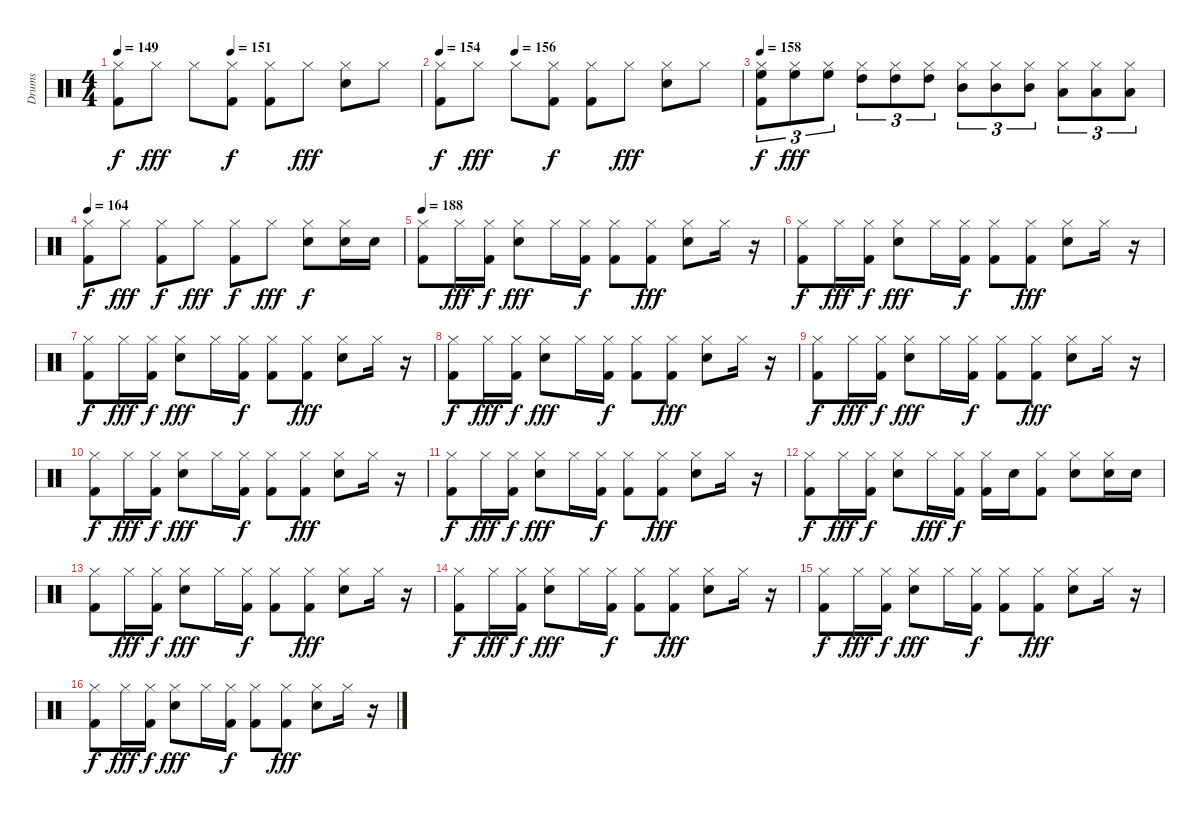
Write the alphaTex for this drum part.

\track ("Drums" "Drums") {instrument percussion}
\staff {score}
\articulation defaults
\ts (4 4)
\tempo 149
\tempo (151 0.375)
\clef neutral
\ks c
("Hi-Hat (closed)" "Kick (hit) 2").8{dy f} "Hi-Hat (closed)".8{dy fff} "Hi-Hat (closed)".8 ("Hi-Hat (closed)" "Kick (hit) 2").8{dy f} ("Hi-Hat (closed)" "Kick (hit) 2").8 "Hi-Hat (closed)".8{dy fff} ("Hi-Hat (closed)" "Snare (hit) 2").8 "Hi-Hat (closed)".8 |
\tempo 154
\tempo (156 0.25)
("Hi-Hat (closed)" "Kick (hit) 2").8{dy f} "Hi-Hat (closed)".8{dy fff} "Hi-Hat (closed)".8 ("Hi-Hat (closed)" "Kick (hit) 2").8{dy f} ("Hi-Hat (closed)" "Kick (hit) 2").8 "Hi-Hat (closed)".8{dy fff} ("Hi-Hat (closed)" "Snare (hit) 2").8 "Hi-Hat (closed)".8 |
\tempo 158
("Hi-Hat (closed)" "High Floor Tom (hit)" "Kick (hit) 2").8{tu (3 2) dy f} ("Hi-Hat (closed)" "High Floor Tom (hit)").8{tu (3 2) dy fff} ("Hi-Hat (closed)" "High Floor Tom (hit)").8{tu (3 2)} ("Hi-Hat (closed)" "High Tom (hit)").8{tu (3 2)} ("Hi-Hat (closed)" "High Tom (hit)").8{tu (3 2)} ("Hi-Hat (closed)" "High Tom (hit)").8{tu (3 2)} ("Hi-Hat (closed)" "Mid Tom (hit)").8{tu (3 2)} ("Hi-Hat (closed)" "Mid Tom (hit)").8{tu (3 2)} ("Hi-Hat (closed)" "Mid Tom (hit)").8{tu (3 2)} ("Hi-Hat (closed)" "Low Tom (hit)").8{tu (3 2)} ("Hi-Hat (closed)" "Low Tom (hit)").8{tu (3 2)} ("Hi-Hat (closed)" "Low Tom (hit)").8{tu (3 2)} |
\tempo 164
("Hi-Hat (closed)" "Kick (hit) 2").8{dy f} "Hi-Hat (closed)".8{dy fff} ("Hi-Hat (closed)" "Kick (hit) 2").8{dy f} "Hi-Hat (closed)".8{dy fff} ("Hi-Hat (closed)" "Kick (hit) 2").8{dy f} "Hi-Hat (closed)".8{dy fff} ("Hi-Hat (closed)" "Snare (hit) 2").8{dy f} ("Hi-Hat (closed)" "Snare (hit) 2").16 "Snare (hit) 2".16 |
\tempo 188
("Hi-Hat (closed)" "Kick (hit) 2").8 "Hi-Hat (closed)".16{dy fff} ("Hi-Hat (closed)" "Kick (hit) 2").16{dy f} ("Hi-Hat (closed)" "Snare (hit) 2").8{dy fff} "Hi-Hat (closed)".16 ("Hi-Hat (closed)" "Kick (hit) 2").16{dy f} ("Hi-Hat (closed)" "Kick (hit) 2").8 ("Hi-Hat (closed)" "Kick (hit) 2").8{dy fff} ("Hi-Hat (closed)" "Snare (hit) 2").8 "Hi-Hat (closed)".16 r.16 |
("Hi-Hat (closed)" "Kick (hit) 2").8{dy f} "Hi-Hat (closed)".16{dy fff} ("Hi-Hat (closed)" "Kick (hit) 2").16{dy f} ("Hi-Hat (closed)" "Snare (hit) 2").8{dy fff} "Hi-Hat (closed)".16 ("Hi-Hat (closed)" "Kick (hit) 2").16{dy f} ("Hi-Hat (closed)" "Kick (hit) 2").8 ("Hi-Hat (closed)" "Kick (hit) 2").8{dy fff} ("Hi-Hat (closed)" "Snare (hit) 2").8 "Hi-Hat (closed)".16 r.16 |
("Hi-Hat (closed)" "Kick (hit) 2").8{dy f} "Hi-Hat (closed)".16{dy fff} ("Hi-Hat (closed)" "Kick (hit) 2").16{dy f} ("Hi-Hat (closed)" "Snare (hit) 2").8{dy fff} "Hi-Hat (closed)".16 ("Hi-Hat (closed)" "Kick (hit) 2").16{dy f} ("Hi-Hat (closed)" "Kick (hit) 2").8 ("Hi-Hat (closed)" "Kick (hit) 2").8{dy fff} ("Hi-Hat (closed)" "Snare (hit) 2").8 "Hi-Hat (closed)".16 r.16 |
("Hi-Hat (closed)" "Kick (hit) 2").8{dy f} "Hi-Hat (closed)".16{dy fff} ("Hi-Hat (closed)" "Kick (hit) 2").16{dy f} ("Hi-Hat (closed)" "Snare (hit) 2").8{dy fff} "Hi-Hat (closed)".16 ("Hi-Hat (closed)" "Kick (hit) 2").16{dy f} ("Hi-Hat (closed)" "Kick (hit) 2").8 ("Hi-Hat (closed)" "Kick (hit) 2").8{dy fff} ("Hi-Hat (closed)" "Snare (hit) 2").8 "Hi-Hat (closed)".16 r.16 |
("Hi-Hat (closed)" "Kick (hit) 2").8{dy f} "Hi-Hat (closed)".16{dy fff} ("Hi-Hat (closed)" "Kick (hit) 2").16{dy f} ("Hi-Hat (closed)" "Snare (hit) 2").8{dy fff} "Hi-Hat (closed)".16 ("Hi-Hat (closed)" "Kick (hit) 2").16{dy f} ("Hi-Hat (closed)" "Kick (hit) 2").8 ("Hi-Hat (closed)" "Kick (hit) 2").8{dy fff} ("Hi-Hat (closed)" "Snare (hit) 2").8 "Hi-Hat (closed)".16 r.16 |
("Hi-Hat (closed)" "Kick (hit) 2").8{dy f} "Hi-Hat (closed)".16{dy fff} ("Hi-Hat (closed)" "Kick (hit) 2").16{dy f} ("Hi-Hat (closed)" "Snare (hit) 2").8{dy fff} "Hi-Hat (closed)".16 ("Hi-Hat (closed)" "Kick (hit) 2").16{dy f} ("Hi-Hat (closed)" "Kick (hit) 2").8 ("Hi-Hat (closed)" "Kick (hit) 2").8{dy fff} ("Hi-Hat (closed)" "Snare (hit) 2").8 "Hi-Hat (closed)".16 r.16 |
("Hi-Hat (closed)" "Kick (hit) 2").8{dy f} "Hi-Hat (closed)".16{dy fff} ("Hi-Hat (closed)" "Kick (hit) 2").16{dy f} ("Hi-Hat (closed)" "Snare (hit) 2").8{dy fff} "Hi-Hat (closed)".16 ("Hi-Hat (closed)" "Kick (hit) 2").16{dy f} ("Hi-Hat (closed)" "Kick (hit) 2").8 ("Hi-Hat (closed)" "Kick (hit) 2").8{dy fff} ("Hi-Hat (closed)" "Snare (hit) 2").8 "Hi-Hat (closed)".16 r.16 |
("Hi-Hat (closed)" "Kick (hit) 2").8{dy f} "Hi-Hat (closed)".16{dy fff} ("Hi-Hat (closed)" "Kick (hit) 2").16{dy f} ("Hi-Hat (closed)" "Snare (hit) 2").8 "Hi-Hat (closed)".16{dy fff} ("Hi-Hat (closed)" "Kick (hit) 2").16{dy f} ("Hi-Hat (closed)" "Kick (hit) 2").16 "Snare (hit) 2".16 ("Hi-Hat (closed)" "Kick (hit) 2").8 ("Hi-Hat (closed)" "Snare (hit) 2").8 ("Hi-Hat (closed)" "Snare (hit) 2").16 "Snare (hit) 2".16 |
("Hi-Hat (closed)" "Kick (hit) 2").8 "Hi-Hat (closed)".16{dy fff} ("Hi-Hat (closed)" "Kick (hit) 2").16{dy f} ("Hi-Hat (closed)" "Snare (hit) 2").8{dy fff} "Hi-Hat (closed)".16 ("Hi-Hat (closed)" "Kick (hit) 2").16{dy f} ("Hi-Hat (closed)" "Kick (hit) 2").8 ("Hi-Hat (closed)" "Kick (hit) 2").8{dy fff} ("Hi-Hat (closed)" "Snare (hit) 2").8 "Hi-Hat (closed)".16 r.16 |
("Hi-Hat (closed)" "Kick (hit) 2").8{dy f} "Hi-Hat (closed)".16{dy fff} ("Hi-Hat (closed)" "Kick (hit) 2").16{dy f} ("Hi-Hat (closed)" "Snare (hit) 2").8{dy fff} "Hi-Hat (closed)".16 ("Hi-Hat (closed)" "Kick (hit) 2").16{dy f} ("Hi-Hat (closed)" "Kick (hit) 2").8 ("Hi-Hat (closed)" "Kick (hit) 2").8{dy fff} ("Hi-Hat (closed)" "Snare (hit) 2").8 "Hi-Hat (closed)".16 r.16 |
("Hi-Hat (closed)" "Kick (hit) 2").8{dy f} "Hi-Hat (closed)".16{dy fff} ("Hi-Hat (closed)" "Kick (hit) 2").16{dy f} ("Hi-Hat (closed)" "Snare (hit) 2").8{dy fff} "Hi-Hat (closed)".16 ("Hi-Hat (closed)" "Kick (hit) 2").16{dy f} ("Hi-Hat (closed)" "Kick (hit) 2").8 ("Hi-Hat (closed)" "Kick (hit) 2").8{dy fff} ("Hi-Hat (closed)" "Snare (hit) 2").8 "Hi-Hat (closed)".16 r.16 |
("Hi-Hat (closed)" "Kick (hit) 2").8{dy f} "Hi-Hat (closed)".16{dy fff} ("Hi-Hat (closed)" "Kick (hit) 2").16{dy f} ("Hi-Hat (closed)" "Snare (hit) 2").8{dy fff} "Hi-Hat (closed)".16 ("Hi-Hat (closed)" "Kick (hit) 2").16{dy f} ("Hi-Hat (closed)" "Kick (hit) 2").8 ("Hi-Hat (closed)" "Kick (hit) 2").8{dy fff} ("Hi-Hat (closed)" "Snare (hit) 2").8 "Hi-Hat (closed)".16 r.16
